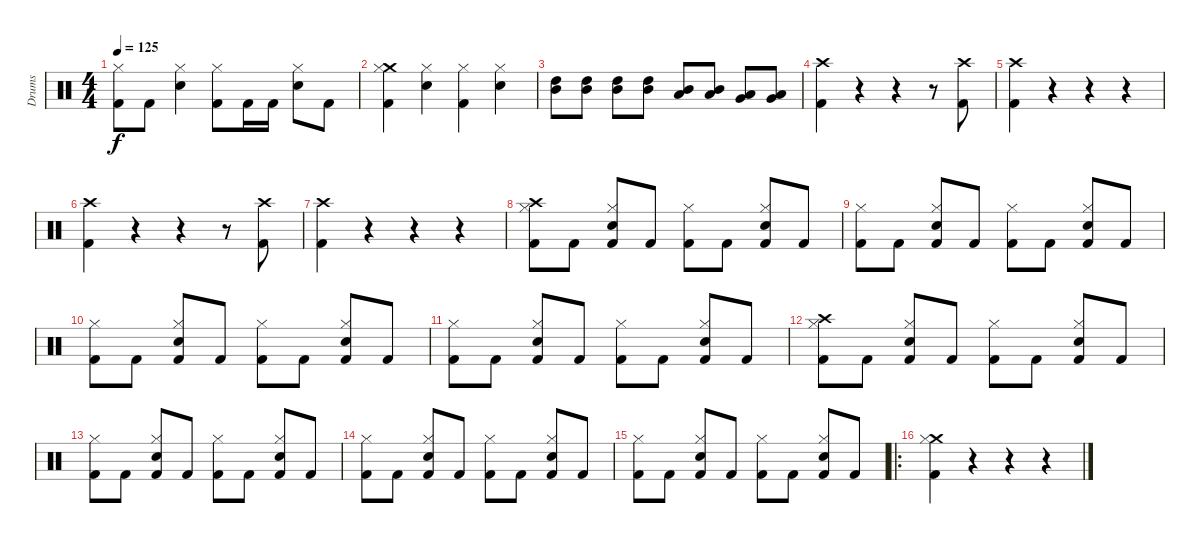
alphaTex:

\track ("Drums" "Drums") {instrument percussion}
\staff {score}
\articulation defaults
\ts (4 4)
\tempo 125
\clef neutral
\ks c
("Kick (hit) 2" "Hi-Hat (closed)").8{dy f} "Kick (hit) 2".8 ("Electric Snare (hit)" "Hi-Hat (closed)").4 ("Kick (hit) 2" "Hi-Hat (closed)").8 "Kick (hit) 2".16 "Kick (hit) 2".16 ("Electric Snare (hit)" "Hi-Hat (closed)").8 "Kick (hit) 2".8 |
("Kick (hit) 2" "Crash medium (hit)" "Hi-Hat (closed)").4 ("Electric Snare (hit)" "Hi-Hat (closed)").4 ("Kick (hit) 2" "Hi-Hat (closed)").4 ("Electric Snare (hit)" "Hi-Hat (closed)").4 |
("Mid Tom (hit)" "High Tom (hit)").8 ("Mid Tom (hit)" "High Tom (hit)").8 ("Mid Tom (hit)" "High Tom (hit)").8 ("Mid Tom (hit)" "High Tom (hit)").8 ("Low Tom (hit)" "Mid Tom (hit)").8 ("Low Tom (hit)" "Mid Tom (hit)").8 ("Very Low Tom (hit)" "Low Tom (hit)").8 ("Very Low Tom (hit)" "Low Tom (hit)").8 |
("Kick (hit) 2" "Crash high (hit)").4 r.4 r.4 r.8 ("Kick (hit) 2" "Crash high (hit)").8 |
("Kick (hit) 2" "Crash high (hit)").4 r.4 r.4 r.4 |
("Kick (hit) 2" "Crash high (hit)").4 r.4 r.4 r.8 ("Kick (hit) 2" "Crash high (hit)").8 |
("Kick (hit) 2" "Crash high (hit)").4 r.4 r.4 r.4 |
("Kick (hit) 2" "Crash high (hit)" "Hi-Hat (closed)").8 "Kick (hit) 2".8 ("Kick (hit) 2" "Electric Snare (hit)" "Hi-Hat (closed)").8 "Kick (hit) 2".8 ("Kick (hit) 2" "Hi-Hat (closed)").8 "Kick (hit) 2".8 ("Kick (hit) 2" "Electric Snare (hit)" "Hi-Hat (closed)").8 "Kick (hit) 2".8 |
("Kick (hit) 2" "Hi-Hat (closed)").8 "Kick (hit) 2".8 ("Kick (hit) 2" "Electric Snare (hit)" "Hi-Hat (closed)").8 "Kick (hit) 2".8 ("Kick (hit) 2" "Hi-Hat (closed)").8 "Kick (hit) 2".8 ("Kick (hit) 2" "Electric Snare (hit)" "Hi-Hat (closed)").8 "Kick (hit) 2".8 |
("Kick (hit) 2" "Hi-Hat (closed)").8 "Kick (hit) 2".8 ("Kick (hit) 2" "Electric Snare (hit)" "Hi-Hat (closed)").8 "Kick (hit) 2".8 ("Kick (hit) 2" "Hi-Hat (closed)").8 "Kick (hit) 2".8 ("Kick (hit) 2" "Electric Snare (hit)" "Hi-Hat (closed)").8 "Kick (hit) 2".8 |
("Kick (hit) 2" "Hi-Hat (closed)").8 "Kick (hit) 2".8 ("Kick (hit) 2" "Electric Snare (hit)" "Hi-Hat (closed)").8 "Kick (hit) 2".8 ("Kick (hit) 2" "Hi-Hat (closed)").8 "Kick (hit) 2".8 ("Kick (hit) 2" "Electric Snare (hit)" "Hi-Hat (closed)").8 "Kick (hit) 2".8 |
("Kick (hit) 2" "Crash high (hit)" "Hi-Hat (closed)").8 "Kick (hit) 2".8 ("Kick (hit) 2" "Electric Snare (hit)" "Hi-Hat (closed)").8 "Kick (hit) 2".8 ("Kick (hit) 2" "Hi-Hat (closed)").8 "Kick (hit) 2".8 ("Kick (hit) 2" "Electric Snare (hit)" "Hi-Hat (closed)").8 "Kick (hit) 2".8 |
("Kick (hit) 2" "Hi-Hat (closed)").8 "Kick (hit) 2".8 ("Kick (hit) 2" "Electric Snare (hit)" "Hi-Hat (closed)").8 "Kick (hit) 2".8 ("Kick (hit) 2" "Hi-Hat (closed)").8 "Kick (hit) 2".8 ("Kick (hit) 2" "Electric Snare (hit)" "Hi-Hat (closed)").8 "Kick (hit) 2".8 |
("Kick (hit) 2" "Hi-Hat (closed)").8 "Kick (hit) 2".8 ("Kick (hit) 2" "Electric Snare (hit)" "Hi-Hat (closed)").8 "Kick (hit) 2".8 ("Kick (hit) 2" "Hi-Hat (closed)").8 "Kick (hit) 2".8 ("Kick (hit) 2" "Electric Snare (hit)" "Hi-Hat (closed)").8 "Kick (hit) 2".8 |
("Kick (hit) 2" "Hi-Hat (closed)").8 "Kick (hit) 2".8 ("Kick (hit) 2" "Electric Snare (hit)" "Hi-Hat (closed)").8 "Kick (hit) 2".8 ("Kick (hit) 2" "Hi-Hat (closed)").8 "Kick (hit) 2".8 ("Kick (hit) 2" "Electric Snare (hit)" "Hi-Hat (closed)").8 "Kick (hit) 2".8 |
\ro
("Kick (hit) 2" "Crash medium (hit)" "Hi-Hat (closed)").4 r.4 r.4 r.4
